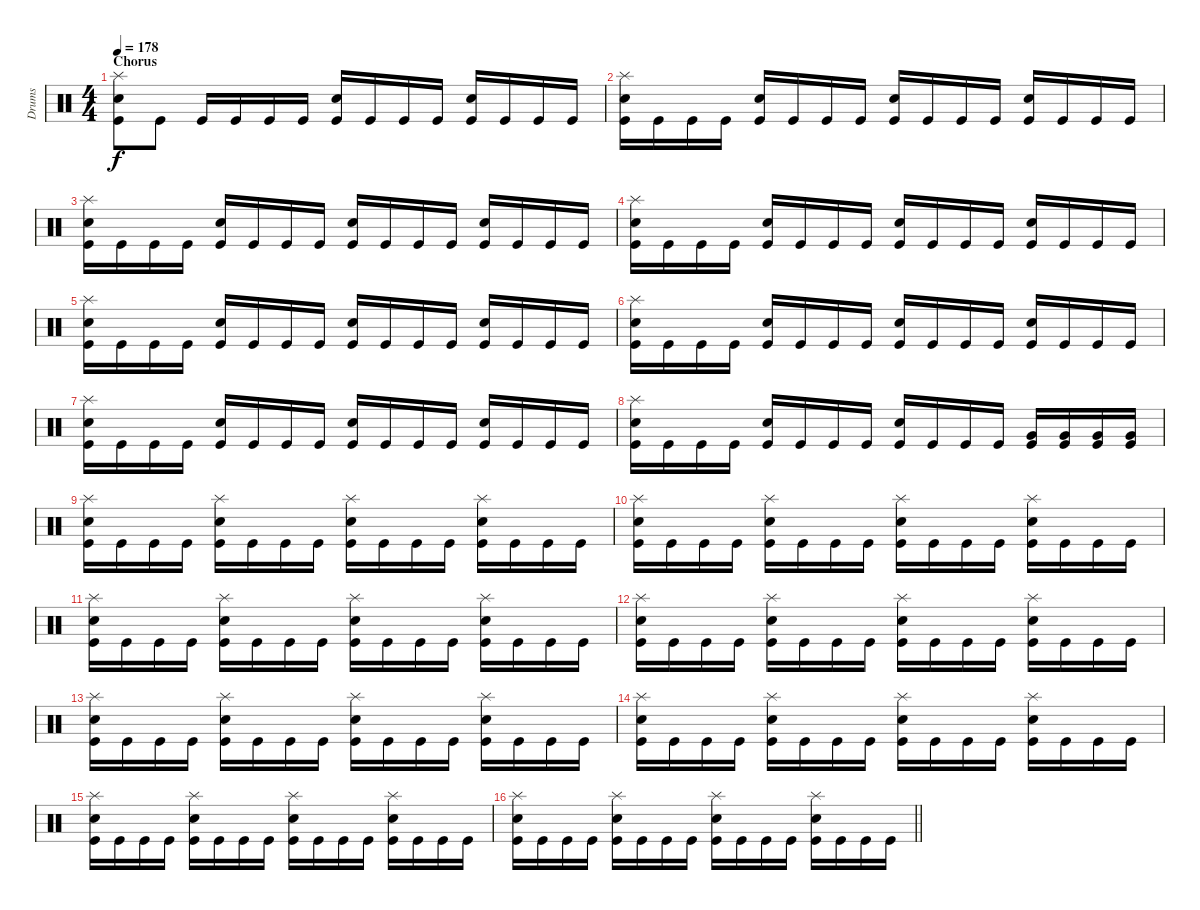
\track ("Drums" "Drums") {instrument percussion}
\staff {score}
\articulation defaults
\ts (4 4)
\section ("" "Chorus")
\tempo 178
\clef neutral
\ks c
("Splash (hit)" "Snare (hit) 2" "Kick (hit)").8{dy f} "Kick (hit)".8 "Kick (hit)".16 "Kick (hit)".16 "Kick (hit)".16 "Kick (hit)".16 ("Snare (hit) 2" "Kick (hit)").16 "Kick (hit)".16 "Kick (hit)".16 "Kick (hit)".16 ("Snare (hit) 2" "Kick (hit)").16 "Kick (hit)".16 "Kick (hit)".16 "Kick (hit)".16 |
("Splash (hit)" "Snare (hit) 2" "Kick (hit)").16 "Kick (hit)".16 "Kick (hit)".16 "Kick (hit)".16 ("Snare (hit) 2" "Kick (hit)").16 "Kick (hit)".16 "Kick (hit)".16 "Kick (hit)".16 ("Snare (hit) 2" "Kick (hit)").16 "Kick (hit)".16 "Kick (hit)".16 "Kick (hit)".16 ("Snare (hit) 2" "Kick (hit)").16 "Kick (hit)".16 "Kick (hit)".16 "Kick (hit)".16 |
("Splash (hit)" "Snare (hit) 2" "Kick (hit)").16 "Kick (hit)".16 "Kick (hit)".16 "Kick (hit)".16 ("Snare (hit) 2" "Kick (hit)").16 "Kick (hit)".16 "Kick (hit)".16 "Kick (hit)".16 ("Snare (hit) 2" "Kick (hit)").16 "Kick (hit)".16 "Kick (hit)".16 "Kick (hit)".16 ("Snare (hit) 2" "Kick (hit)").16 "Kick (hit)".16 "Kick (hit)".16 "Kick (hit)".16 |
("Splash (hit)" "Snare (hit) 2" "Kick (hit)").16 "Kick (hit)".16 "Kick (hit)".16 "Kick (hit)".16 ("Snare (hit) 2" "Kick (hit)").16 "Kick (hit)".16 "Kick (hit)".16 "Kick (hit)".16 ("Snare (hit) 2" "Kick (hit)").16 "Kick (hit)".16 "Kick (hit)".16 "Kick (hit)".16 ("Snare (hit) 2" "Kick (hit)").16 "Kick (hit)".16 "Kick (hit)".16 "Kick (hit)".16 |
("Splash (hit)" "Snare (hit) 2" "Kick (hit)").16 "Kick (hit)".16 "Kick (hit)".16 "Kick (hit)".16 ("Snare (hit) 2" "Kick (hit)").16 "Kick (hit)".16 "Kick (hit)".16 "Kick (hit)".16 ("Snare (hit) 2" "Kick (hit)").16 "Kick (hit)".16 "Kick (hit)".16 "Kick (hit)".16 ("Snare (hit) 2" "Kick (hit)").16 "Kick (hit)".16 "Kick (hit)".16 "Kick (hit)".16 |
("Splash (hit)" "Snare (hit) 2" "Kick (hit)").16 "Kick (hit)".16 "Kick (hit)".16 "Kick (hit)".16 ("Snare (hit) 2" "Kick (hit)").16 "Kick (hit)".16 "Kick (hit)".16 "Kick (hit)".16 ("Snare (hit) 2" "Kick (hit)").16 "Kick (hit)".16 "Kick (hit)".16 "Kick (hit)".16 ("Snare (hit) 2" "Kick (hit)").16 "Kick (hit)".16 "Kick (hit)".16 "Kick (hit)".16 |
("Splash (hit)" "Snare (hit) 2" "Kick (hit)").16 "Kick (hit)".16 "Kick (hit)".16 "Kick (hit)".16 ("Snare (hit) 2" "Kick (hit)").16 "Kick (hit)".16 "Kick (hit)".16 "Kick (hit)".16 ("Snare (hit) 2" "Kick (hit)").16 "Kick (hit)".16 "Kick (hit)".16 "Kick (hit)".16 ("Snare (hit) 2" "Kick (hit)").16 "Kick (hit)".16 "Kick (hit)".16 "Kick (hit)".16 |
("Splash (hit)" "Snare (hit) 2" "Kick (hit)").16 "Kick (hit)".16 "Kick (hit)".16 "Kick (hit)".16 ("Snare (hit) 2" "Kick (hit)").16 "Kick (hit)".16 "Kick (hit)".16 "Kick (hit)".16 ("Snare (hit) 2" "Kick (hit)").16 "Kick (hit)".16 "Kick (hit)".16 "Kick (hit)".16 ("Very Low Tom (hit)" "Kick (hit)").16 ("Very Low Tom (hit)" "Kick (hit)").16 ("Very Low Tom (hit)" "Kick (hit)").16 ("Very Low Tom (hit)" "Kick (hit)").16 |
("Splash (hit)" "Snare (hit) 2" "Kick (hit)").16 "Kick (hit)".16 "Kick (hit)".16 "Kick (hit)".16 ("Splash (hit)" "Snare (hit) 2" "Kick (hit)").16 "Kick (hit)".16 "Kick (hit)".16 "Kick (hit)".16 ("Splash (hit)" "Snare (hit) 2" "Kick (hit)").16 "Kick (hit)".16 "Kick (hit)".16 "Kick (hit)".16 ("Splash (hit)" "Snare (hit) 2" "Kick (hit)").16 "Kick (hit)".16 "Kick (hit)".16 "Kick (hit)".16 |
("Splash (hit)" "Snare (hit) 2" "Kick (hit)").16 "Kick (hit)".16 "Kick (hit)".16 "Kick (hit)".16 ("Splash (hit)" "Snare (hit) 2" "Kick (hit)").16 "Kick (hit)".16 "Kick (hit)".16 "Kick (hit)".16 ("Splash (hit)" "Snare (hit) 2" "Kick (hit)").16 "Kick (hit)".16 "Kick (hit)".16 "Kick (hit)".16 ("Splash (hit)" "Snare (hit) 2" "Kick (hit)").16 "Kick (hit)".16 "Kick (hit)".16 "Kick (hit)".16 |
("Splash (hit)" "Snare (hit) 2" "Kick (hit)").16 "Kick (hit)".16 "Kick (hit)".16 "Kick (hit)".16 ("Splash (hit)" "Snare (hit) 2" "Kick (hit)").16 "Kick (hit)".16 "Kick (hit)".16 "Kick (hit)".16 ("Splash (hit)" "Snare (hit) 2" "Kick (hit)").16 "Kick (hit)".16 "Kick (hit)".16 "Kick (hit)".16 ("Splash (hit)" "Snare (hit) 2" "Kick (hit)").16 "Kick (hit)".16 "Kick (hit)".16 "Kick (hit)".16 |
("Splash (hit)" "Snare (hit) 2" "Kick (hit)").16 "Kick (hit)".16 "Kick (hit)".16 "Kick (hit)".16 ("Splash (hit)" "Snare (hit) 2" "Kick (hit)").16 "Kick (hit)".16 "Kick (hit)".16 "Kick (hit)".16 ("Splash (hit)" "Snare (hit) 2" "Kick (hit)").16 "Kick (hit)".16 "Kick (hit)".16 "Kick (hit)".16 ("Splash (hit)" "Snare (hit) 2" "Kick (hit)").16 "Kick (hit)".16 "Kick (hit)".16 "Kick (hit)".16 |
("Splash (hit)" "Snare (hit) 2" "Kick (hit)").16 "Kick (hit)".16 "Kick (hit)".16 "Kick (hit)".16 ("Splash (hit)" "Snare (hit) 2" "Kick (hit)").16 "Kick (hit)".16 "Kick (hit)".16 "Kick (hit)".16 ("Splash (hit)" "Snare (hit) 2" "Kick (hit)").16 "Kick (hit)".16 "Kick (hit)".16 "Kick (hit)".16 ("Splash (hit)" "Snare (hit) 2" "Kick (hit)").16 "Kick (hit)".16 "Kick (hit)".16 "Kick (hit)".16 |
("Splash (hit)" "Snare (hit) 2" "Kick (hit)").16 "Kick (hit)".16 "Kick (hit)".16 "Kick (hit)".16 ("Splash (hit)" "Snare (hit) 2" "Kick (hit)").16 "Kick (hit)".16 "Kick (hit)".16 "Kick (hit)".16 ("Splash (hit)" "Snare (hit) 2" "Kick (hit)").16 "Kick (hit)".16 "Kick (hit)".16 "Kick (hit)".16 ("Splash (hit)" "Snare (hit) 2" "Kick (hit)").16 "Kick (hit)".16 "Kick (hit)".16 "Kick (hit)".16 |
("Splash (hit)" "Snare (hit) 2" "Kick (hit)").16 "Kick (hit)".16 "Kick (hit)".16 "Kick (hit)".16 ("Splash (hit)" "Snare (hit) 2" "Kick (hit)").16 "Kick (hit)".16 "Kick (hit)".16 "Kick (hit)".16 ("Splash (hit)" "Snare (hit) 2" "Kick (hit)").16 "Kick (hit)".16 "Kick (hit)".16 "Kick (hit)".16 ("Splash (hit)" "Snare (hit) 2" "Kick (hit)").16 "Kick (hit)".16 "Kick (hit)".16 "Kick (hit)".16 |
\barLineRight lightlight
("Splash (hit)" "Snare (hit) 2" "Kick (hit)").16 "Kick (hit)".16 "Kick (hit)".16 "Kick (hit)".16 ("Splash (hit)" "Snare (hit) 2" "Kick (hit)").16 "Kick (hit)".16 "Kick (hit)".16 "Kick (hit)".16 ("Splash (hit)" "Snare (hit) 2" "Kick (hit)").16 "Kick (hit)".16 "Kick (hit)".16 "Kick (hit)".16 ("Splash (hit)" "Snare (hit) 2" "Kick (hit)").16 "Kick (hit)".16 "Kick (hit)".16 "Kick (hit)".16
